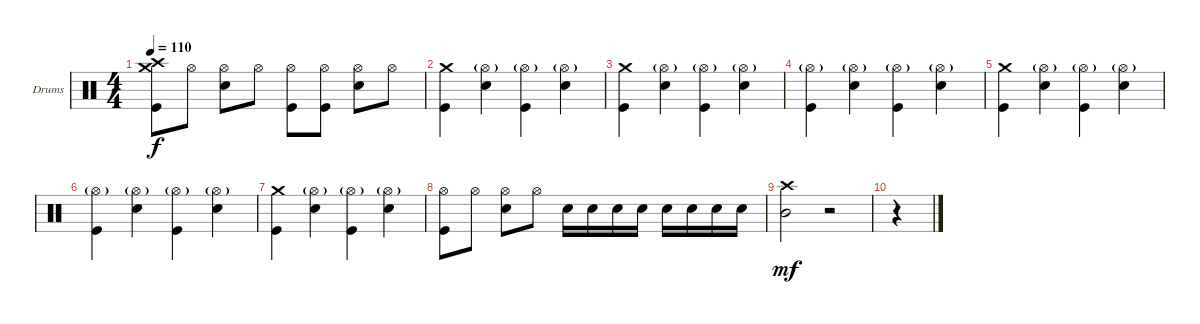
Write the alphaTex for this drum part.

\defaultSystemsLayout 4
\bracketExtendMode groupsimilarinstruments
\firstSystemTrackNameOrientation horizontal
\otherSystemsTrackNameOrientation horizontal
\track ("Drumkit" "Drums") {instrument percussion}
\staff {score}
\articulation defaults
\ts (4 4)
\tempo 110
\clef neutral
\scale
0.333333
\ks c
("Crash medium (hit)" "Crash high (hit)" "Kick (hit)").8{dy f} "Hi-Hat (open)".8 ("Hi-Hat (open)" "Snare (hit) 2").8 "Hi-Hat (open)".8 ("Hi-Hat (open)" "Kick (hit)").8 ("Hi-Hat (open)" "Kick (hit)").8 ("Hi-Hat (open)" "Snare (hit) 2").8 "Hi-Hat (open)".8 |
\scale
0.333333 ("Crash medium (hit)" "Kick (hit)").4 ("Hi-Hat (open)"{g} "Snare (hit) 2").4 ("Hi-Hat (open)"{g} "Kick (hit)").4 ("Hi-Hat (open)"{g} "Snare (hit) 2").4 |
\scale
0.333333 ("Crash medium (hit)" "Kick (hit)").4 ("Hi-Hat (open)"{g} "Snare (hit) 2").4 ("Hi-Hat (open)"{g} "Kick (hit)").4 ("Hi-Hat (open)"{g} "Snare (hit) 2").4 |
\scale
0.333333 ("Hi-Hat (open)"{g} "Kick (hit)").4 ("Hi-Hat (open)"{g} "Snare (hit) 2").4 ("Hi-Hat (open)"{g} "Kick (hit)").4 ("Hi-Hat (open)"{g} "Snare (hit) 2").4 |
\scale
0.333333 ("Crash medium (hit)" "Kick (hit)").4 ("Hi-Hat (open)"{g} "Snare (hit) 2").4 ("Hi-Hat (open)"{g} "Kick (hit)").4 ("Hi-Hat (open)"{g} "Snare (hit) 2").4 |
\scale
0.333333 ("Hi-Hat (open)"{g} "Kick (hit)").4 ("Hi-Hat (open)"{g} "Snare (hit) 2").4 ("Hi-Hat (open)"{g} "Kick (hit)").4 ("Hi-Hat (open)"{g} "Snare (hit) 2").4 |
\scale
0.333333 ("Crash medium (hit)" "Kick (hit)").4 ("Hi-Hat (open)"{g} "Snare (hit) 2").4 ("Hi-Hat (open)"{g} "Kick (hit)").4 ("Hi-Hat (open)"{g} "Snare (hit) 2").4 |
\scale
0.333333 ("Hi-Hat (open)" "Kick (hit)").8 "Hi-Hat (open)".8 ("Hi-Hat (open)" "Snare (hit) 2").8 "Hi-Hat (open)".8 "Snare (hit) 2".16 "Snare (hit) 2".16 "Snare (hit) 2".16 "Snare (hit) 2".16 "Snare (hit) 2".16 "Snare (hit) 2".16 "Snare (hit) 2".16 "Snare (hit) 2".16 |
\scale
0.333333 ("Crash high (hit)" "Mid Tom (hit)").2{dy mf} r.2 |
\scale
0.333333 r.4 |
\scale
0.333333 |
\scale
0.333333 |
\scale
0.333333 |
\scale
0.333333 |
\scale
0.333333 |
\scale
0.333333
